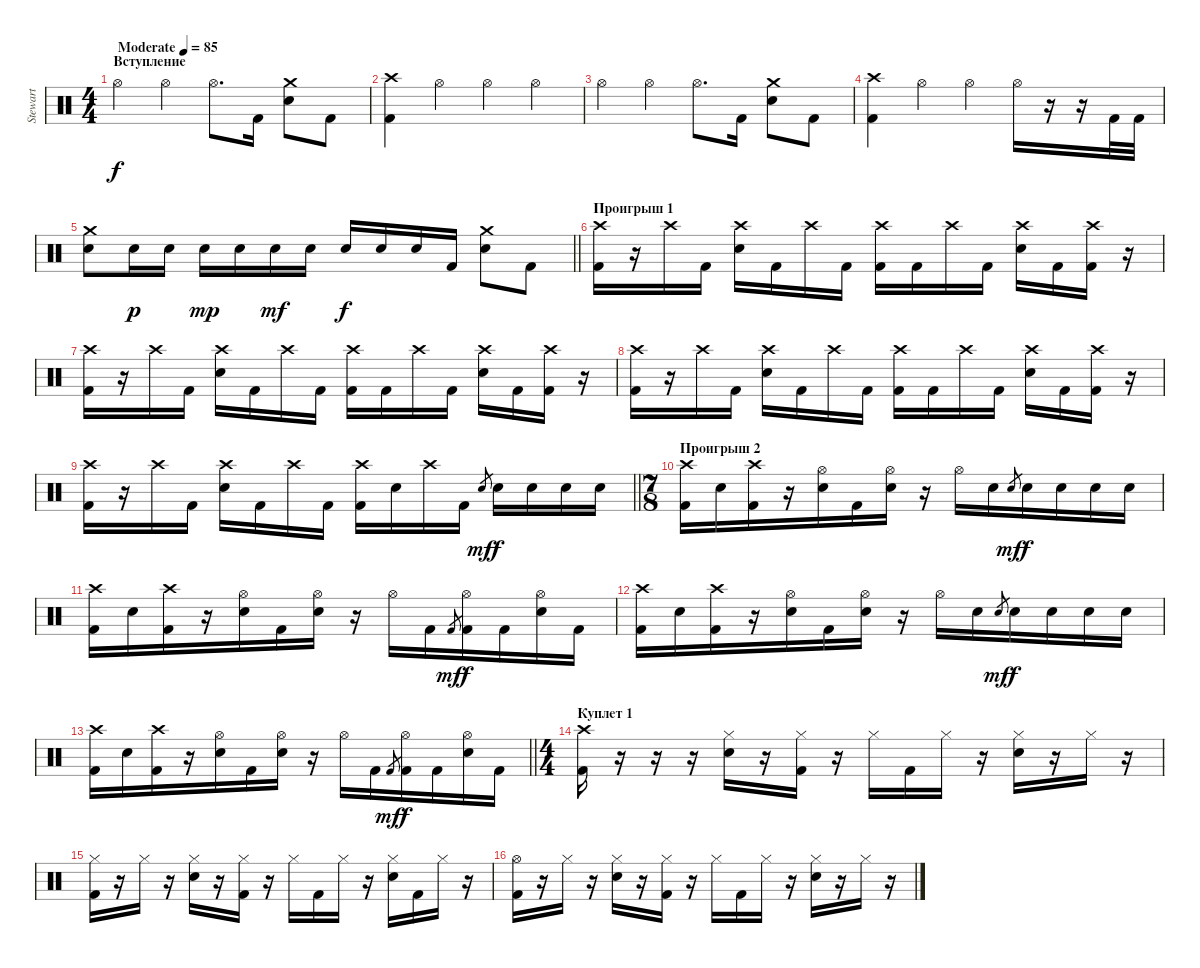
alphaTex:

\track ("Stewart" "Stewart") {instrument percussion}
\staff {score}
\articulation defaults
\ts (4 4)
\section ("" "Вступление")
\tempo (85 "Moderate")
\clef neutral
\ks c "Hi-Hat (open)".4{dy f} "Hi-Hat (open)".4 "Hi-Hat (open)".8{d} "Kick (hit) 2".16
("Crash medium (hit)" "Electric Snare (hit)").8 "Kick (hit) 2".8 |
("Crash high (hit)" "Kick (hit) 2").4 "Hi-Hat (open)".4 "Hi-Hat (open)".4 "Hi-Hat (open)".4 |
"Hi-Hat (open)".4 "Hi-Hat (open)".4 "Hi-Hat (open)".8{d} "Kick (hit) 2".16 ("Crash medium (hit)" "Electric Snare (hit)").8 "Kick (hit) 2".8 |
("Crash high (hit)" "Kick (hit) 2").4 "Hi-Hat (open)".4 "Hi-Hat (open)".4 "Hi-Hat (open)".16 r.16 r.16 "Kick (hit) 2".32 "Kick (hit) 2".32 |
\barLineRight lightlight
("Crash medium (hit)" "Electric Snare (hit)").8 "Electric Snare (hit)".16{dy p} "Electric Snare (hit)".16 "Electric Snare (hit)".16{dy mp} "Electric Snare (hit)".16 "Electric Snare (hit)".16{dy mf} "Electric Snare (hit)".16 "Electric Snare (hit)".16{dy f} "Electric Snare (hit)".16 "Electric Snare (hit)".16 "Kick (hit) 2".16 ("Crash medium (hit)" "Electric Snare (hit)").8 "Kick (hit) 2".8 |
\section ("" "Проигрыш 1")
("Crash high (hit)" "Kick (hit) 2").16 r.16 "Crash high (hit)".16 "Kick (hit) 2".16 ("Crash high (hit)" "Electric Snare (hit)").16 "Kick (hit) 2".16 "Crash high (hit)".16 "Kick (hit) 2".16 ("Crash high (hit)" "Kick (hit) 2").16 "Kick (hit) 2".16 "Crash high (hit)".16 "Kick (hit) 2".16 ("Crash high (hit)" "Electric Snare (hit)").16 "Kick (hit) 2".16 ("Crash high (hit)" "Kick (hit) 2").16 r.16 |
("Crash high (hit)" "Kick (hit) 2").16 r.16 "Crash high (hit)".16 "Kick (hit) 2".16 ("Crash high (hit)" "Electric Snare (hit)").16 "Kick (hit) 2".16 "Crash high (hit)".16 "Kick (hit) 2".16 ("Crash high (hit)" "Kick (hit) 2").16 "Kick (hit) 2".16 "Crash high (hit)".16 "Kick (hit) 2".16 ("Crash high (hit)" "Electric Snare (hit)").16 "Kick (hit) 2".16 ("Crash high (hit)" "Kick (hit) 2").16 r.16 |
("Crash high (hit)" "Kick (hit) 2").16 r.16 "Crash high (hit)".16 "Kick (hit) 2".16 ("Crash high (hit)" "Electric Snare (hit)").16 "Kick (hit) 2".16 "Crash high (hit)".16 "Kick (hit) 2".16 ("Crash high (hit)" "Kick (hit) 2").16 "Kick (hit) 2".16 "Crash high (hit)".16 "Kick (hit) 2".16 ("Crash high (hit)" "Electric Snare (hit)").16 "Kick (hit) 2".16 ("Crash high (hit)" "Kick (hit) 2").16 r.16 |
\barLineRight lightlight
("Crash high (hit)" "Kick (hit) 2").16 r.16 "Crash high (hit)".16 "Kick (hit) 2".16 ("Crash high (hit)" "Electric Snare (hit)").16 "Kick (hit) 2".16 "Crash high (hit)".16 "Kick (hit) 2".16 ("Crash high (hit)" "Kick (hit) 2").16 "Electric Snare (hit)".16 "Crash high (hit)".16 "Kick (hit) 2".16 "Electric Snare (hit)".8{gr dy mf} "Electric Snare (hit)".16{dy f} "Electric Snare (hit)".16 "Electric Snare (hit)".16 "Electric Snare (hit)".16 |
\ts (7 8)
\section ("" "Проигрыш 2")
("Crash high (hit)" "Kick (hit) 2").16 "Electric Snare (hit)".16 ("Crash high (hit)" "Kick (hit) 2").16 r.16 ("Hi-Hat (open)" "Electric Snare (hit)").16 "Kick (hit) 2".16 ("Hi-Hat (open)" "Electric Snare (hit)").16 r.16 "Hi-Hat (open)".16 "Electric Snare (hit)".16 "Electric Snare (hit)".8{gr dy mf} "Electric Snare (hit)".16{dy f} "Electric Snare (hit)".16 "Electric Snare (hit)".16 "Electric Snare (hit)".16 |
("Crash high (hit)" "Kick (hit) 2").16 "Electric Snare (hit)".16 ("Crash high (hit)" "Kick (hit) 2").16 r.16 ("Hi-Hat (open)" "Electric Snare (hit)").16 "Kick (hit) 2".16 ("Hi-Hat (open)" "Electric Snare (hit)").16 r.16 "Hi-Hat (open)".16 "Kick (hit) 2".16 "Kick (hit) 2".8{gr dy mf} ("Hi-Hat (open)" "Kick (hit) 2").16{dy f} "Kick (hit) 2".16 ("Hi-Hat (open)" "Electric Snare (hit)").16 "Kick (hit) 2".16 |
("Crash high (hit)" "Kick (hit) 2").16 "Electric Snare (hit)".16 ("Crash high (hit)" "Kick (hit) 2").16 r.16 ("Hi-Hat (open)" "Electric Snare (hit)").16 "Kick (hit) 2".16 ("Hi-Hat (open)" "Electric Snare (hit)").16 r.16 "Hi-Hat (open)".16 "Electric Snare (hit)".16 "Electric Snare (hit)".8{gr dy mf} "Electric Snare (hit)".16{dy f} "Electric Snare (hit)".16 "Electric Snare (hit)".16 "Electric Snare (hit)".16 |
\barLineRight lightlight
("Crash high (hit)" "Kick (hit) 2").16 "Electric Snare (hit)".16 ("Crash high (hit)" "Kick (hit) 2").16 r.16 ("Hi-Hat (open)" "Electric Snare (hit)").16 "Kick (hit) 2".16 ("Hi-Hat (open)" "Electric Snare (hit)").16 r.16 "Hi-Hat (open)".16 "Kick (hit) 2".16 "Kick (hit) 2".8{gr dy mf} ("Hi-Hat (open)" "Kick (hit) 2").16{dy f} "Kick (hit) 2".16 ("Hi-Hat (open)" "Electric Snare (hit)").16 "Kick (hit) 2".16 |
\ts (4 4)
\section ("" "Куплет 1")
("Crash high (hit)" "Kick (hit) 2").16 r.16 r.16 r.16 ("Hi-Hat (closed)" "Electric Snare (hit)").16 r.16 ("Hi-Hat (closed)" "Kick (hit) 2").16 r.16 "Hi-Hat (closed)".16 "Kick (hit) 2".16 "Hi-Hat (closed)".16 r.16 ("Hi-Hat (closed)" "Electric Snare (hit)").16 r.16 "Hi-Hat (closed)".16 r.16 |
("Hi-Hat (closed)" "Kick (hit) 2").16 r.16 "Hi-Hat (closed)".16 r.16 ("Hi-Hat (closed)" "Electric Snare (hit)").16 r.16 ("Hi-Hat (closed)" "Kick (hit) 2").16 r.16 "Hi-Hat (closed)".16 "Kick (hit) 2".16 "Hi-Hat (closed)".16 r.16 ("Hi-Hat (closed)" "Electric Snare (hit)").16 "Kick (hit) 2".16 "Hi-Hat (closed)".16 r.16 |
("Hi-Hat (open)" "Kick (hit) 2").16 r.16 "Hi-Hat (closed)".16 r.16 ("Hi-Hat (closed)" "Electric Snare (hit)").16 r.16 ("Hi-Hat (closed)" "Kick (hit) 2").16 r.16 "Hi-Hat (closed)".16 "Kick (hit) 2".16 "Hi-Hat (closed)".16 r.16 ("Hi-Hat (closed)" "Electric Snare (hit)").16 r.16 "Hi-Hat (closed)".16 r.16
